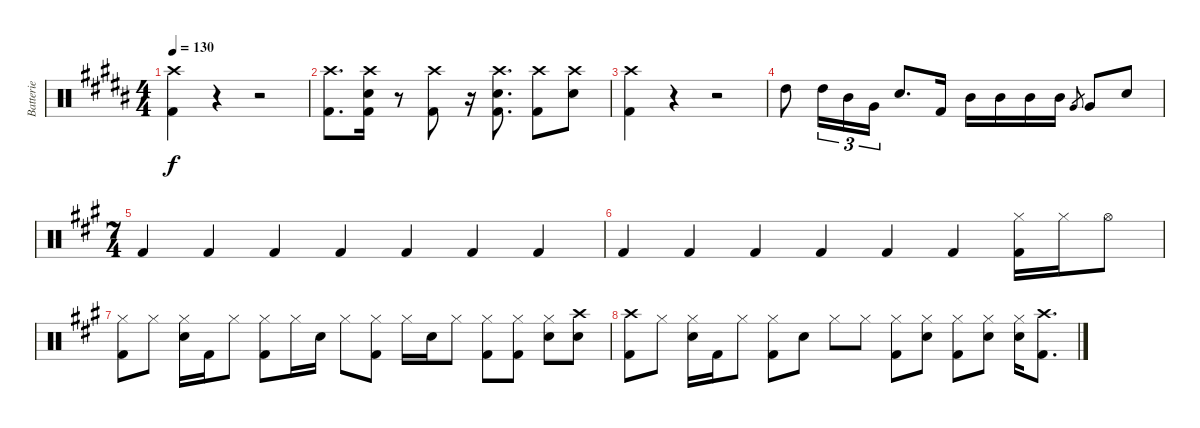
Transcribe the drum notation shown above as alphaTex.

\track ("Batterie" "Batterie") {instrument percussion}
\staff {score}
\articulation defaults
\ts (4 4)
\tempo 130
\clef neutral
\ks b
("Crash high (hit)" "Kick (hit) 2").4{dy f} r.4 r.2 |
("Crash high (hit)" "Kick (hit) 2").8{d} ("Crash high (hit)" "Snare (hit) 2" "Kick (hit) 2").16 r.8 ("Crash high (hit)" "Kick (hit) 2").8 r.16 ("Crash high (hit)" "Snare (hit) 2" "Kick (hit) 2").8{d} ("Crash high (hit)" "Kick (hit) 2").8 ("Crash high (hit)" "Snare (hit) 2").8 |
("Crash high (hit)" "Kick (hit) 2").4 r.4 r.2 |
"High Tom (hit)".8 "High Tom (hit)".16{tu (3 2)} "Mid Tom (hit)".16{tu (3 2)} "Very Low Tom (hit)".16{tu (3 2)} "Snare (hit) 2".8{d} "Kick (hit) 2".16 "Mid Tom (hit)".16 "Mid Tom (hit)".16 "Mid Tom (hit)".16 "Mid Tom (hit)".16 "Very Low Tom (hit)".8{gr} "Very Low Tom (hit)".8 "Snare (hit) 2".8 |
\ts (7 4)
\ks a "Kick (hit) 2".4 "Kick (hit) 2".4 "Kick (hit) 2".4 "Kick (hit) 2".4 "Kick (hit) 2".4 "Kick (hit) 2".4 "Kick (hit) 2".4
|
"Kick (hit) 2".4 "Kick (hit) 2".4 "Kick (hit) 2".4 "Kick (hit) 2".4 "Kick (hit) 2".4 "Kick (hit) 2".4 ("Hi-Hat (closed)" "Kick (hit) 2").16 "Hi-Hat (closed)".16 "Hi-Hat (open)".8 |
("Hi-Hat (closed)" "Kick (hit) 2").8 "Hi-Hat (closed)".8 ("Hi-Hat (closed)" "Snare (hit) 2").16 "Kick (hit) 2".16 "Hi-Hat (closed)".8 ("Hi-Hat (closed)" "Kick (hit) 2").8 "Hi-Hat (closed)".16 "Snare (hit) 2".16 "Hi-Hat (closed)".8 ("Hi-Hat (closed)" "Kick (hit) 2").8 "Hi-Hat (closed)".16 "Snare (hit) 2".16 "Hi-Hat (closed)".8 ("Hi-Hat (closed)" "Kick (hit) 2").8 ("Hi-Hat (closed)" "Kick (hit) 2").8 ("Hi-Hat (closed)" "Snare (hit) 2").8 ("Crash high (hit)" "Snare (hit) 2").8 |
("Crash high (hit)" "Kick (hit) 2").8 "Hi-Hat (closed)".8 ("Hi-Hat (closed)" "Snare (hit) 2").16 "Kick (hit) 2".16 "Hi-Hat (closed)".8 ("Hi-Hat (closed)" "Kick (hit) 2").8 "Snare (hit) 2".8 "Hi-Hat (closed)".8 "Hi-Hat (closed)".8 ("Hi-Hat (closed)" "Kick (hit) 2").8 ("Hi-Hat (closed)" "Snare (hit) 2").8 ("Hi-Hat (closed)" "Kick (hit) 2").8 ("Hi-Hat (closed)" "Snare (hit) 2").8 ("Hi-Hat (closed)" "Snare (hit) 2").16 ("Crash high (hit)" "Kick (hit) 2").8{d}
